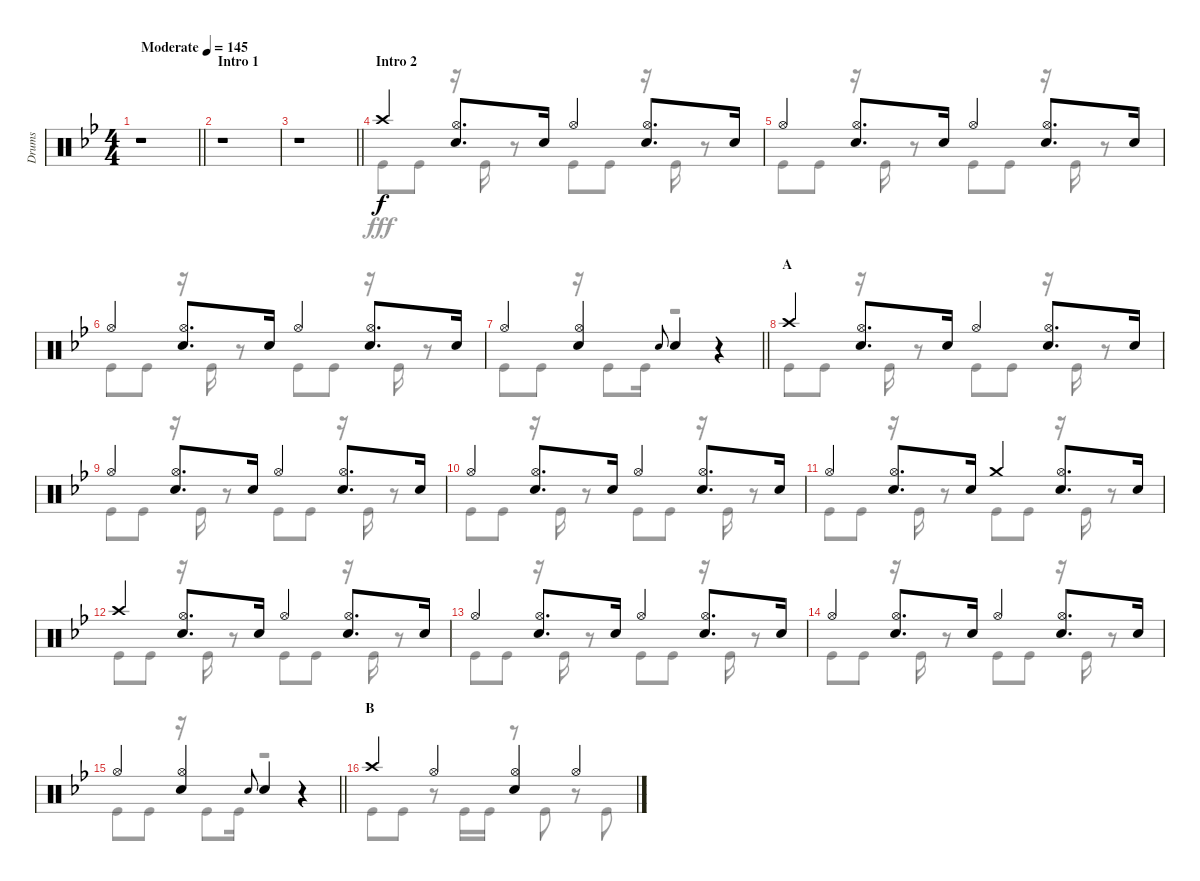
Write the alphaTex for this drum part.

\track ("Drums" "Drums") {instrument percussion}
\staff {score}
\articulation defaults
\voice
\ts (4 4)
\tempo (145 "Moderate")
\clef neutral
\barLineRight lightlight
\ks bb
r.1{dy f} |
\section ("" "Intro 1")
r.1 |
\barLineRight lightlight
r.1 |
\section ("" "Intro 2")
"Crash high (hit)".4 ("Hi-Hat (open)" "Snare (hit) 2").8{d} "Snare (hit) 2".16 "Hi-Hat (open)".4 ("Hi-Hat (open)" "Snare (hit) 2").8{d} "Snare (hit) 2".16 |
"Hi-Hat (open)".4 ("Hi-Hat (open)" "Snare (hit) 2").8{d} "Snare (hit) 2".16 "Hi-Hat (open)".4 ("Hi-Hat (open)" "Snare (hit) 2").8{d} "Snare (hit) 2".16 |
"Hi-Hat (open)".4 ("Hi-Hat (open)" "Snare (hit) 2").8{d} "Snare (hit) 2".16 "Hi-Hat (open)".4 ("Hi-Hat (open)" "Snare (hit) 2").8{d} "Snare (hit) 2".16 |
\barLineRight lightlight "Hi-Hat (open)".4
("Hi-Hat (open)" "Snare (hit) 2").4 "Snare (hit) 2".8{gr onbeat} "Snare (hit) 2".4 r.4 |
\section ("" "A")
"Crash high (hit)".4 ("Hi-Hat (open)" "Snare (hit) 2").8{d} "Snare (hit) 2".16 "Hi-Hat (open)".4 ("Hi-Hat (open)" "Snare (hit) 2").8{d} "Snare (hit) 2".16 |
"Hi-Hat (open)".4 ("Hi-Hat (open)" "Snare (hit) 2").8{d} "Snare (hit) 2".16 "Hi-Hat (open)".4 ("Hi-Hat (open)" "Snare (hit) 2").8{d} "Snare (hit) 2".16 |
"Hi-Hat (open)".4 ("Hi-Hat (open)" "Snare (hit) 2").8{d} "Snare (hit) 2".16 "Hi-Hat (open)".4 ("Hi-Hat (open)" "Snare (hit) 2").8{d} "Snare (hit) 2".16 |
"Hi-Hat (open)".4 ("Hi-Hat (open)" "Snare (hit) 2").8{d} "Snare (hit) 2".16 "Crash medium (hit)".4 ("Hi-Hat (open)" "Snare (hit) 2").8{d} "Snare (hit) 2".16 |
"Crash high (hit)".4 ("Hi-Hat (open)" "Snare (hit) 2").8{d} "Snare (hit) 2".16 "Hi-Hat (open)".4 ("Hi-Hat (open)" "Snare (hit) 2").8{d} "Snare (hit) 2".16 |
"Hi-Hat (open)".4 ("Hi-Hat (open)" "Snare (hit) 2").8{d} "Snare (hit) 2".16 "Hi-Hat (open)".4 ("Hi-Hat (open)" "Snare (hit) 2").8{d} "Snare (hit) 2".16 |
"Hi-Hat (open)".4 ("Hi-Hat (open)" "Snare (hit) 2").8{d} "Snare (hit) 2".16 "Hi-Hat (open)".4 ("Hi-Hat (open)" "Snare (hit) 2").8{d} "Snare (hit) 2".16 |
\barLineRight lightlight "Hi-Hat (open)".4
("Hi-Hat (open)" "Snare (hit) 2").4 "Snare (hit) 2".8{gr onbeat} "Snare (hit) 2".4 r.4 |
\section ("" "B")
"Crash high (hit)".4 "Hi-Hat (open)".4 ("Hi-Hat (open)" "Snare (hit) 2").4 "Hi-Hat (open)".4
\voice
\clef neutral
\ottava regular
\simile none
\barLineRight lightlight
\ks bb
r.1{dy fff} |
r.1 |
\barLineRight lightlight
r.1 |
"Kick (hit)".8 "Kick (hit)".8 r.16 "Kick (hit)".16 r.8 "Kick (hit)".8 "Kick (hit)".8 r.16 "Kick (hit)".16 r.8 |
"Kick (hit)".8 "Kick (hit)".8 r.16 "Kick (hit)".16 r.8 "Kick (hit)".8 "Kick (hit)".8 r.16 "Kick (hit)".16 r.8 |
"Kick (hit)".8 "Kick (hit)".8 r.16 "Kick (hit)".16 r.8 "Kick (hit)".8 "Kick (hit)".8 r.16 "Kick (hit)".16 r.8 |
\barLineRight lightlight "Kick (hit)".8 "Kick (hit)".8
r.16 "Kick (hit)".8 "Kick (hit)".16 r.2 |
"Kick (hit)".8 "Kick (hit)".8 r.16 "Kick (hit)".16 r.8 "Kick (hit)".8 "Kick (hit)".8 r.16 "Kick (hit)".16 r.8 |
"Kick (hit)".8 "Kick (hit)".8 r.16 "Kick (hit)".16 r.8 "Kick (hit)".8 "Kick (hit)".8 r.16 "Kick (hit)".16 r.8 |
"Kick (hit)".8 "Kick (hit)".8 r.16 "Kick (hit)".16 r.8 "Kick (hit)".8 "Kick (hit)".8 r.16 "Kick (hit)".16 r.8 |
"Kick (hit)".8 "Kick (hit)".8 r.16 "Kick (hit)".16 r.8 "Kick (hit)".8 "Kick (hit)".8 r.16 "Kick (hit)".16 r.8 |
"Kick (hit)".8 "Kick (hit)".8 r.16 "Kick (hit)".16 r.8 "Kick (hit)".8 "Kick (hit)".8 r.16 "Kick (hit)".16 r.8 |
"Kick (hit)".8 "Kick (hit)".8 r.16 "Kick (hit)".16 r.8 "Kick (hit)".8 "Kick (hit)".8 r.16 "Kick (hit)".16 r.8 |
"Kick (hit)".8 "Kick (hit)".8 r.16 "Kick (hit)".16 r.8 "Kick (hit)".8 "Kick (hit)".8 r.16 "Kick (hit)".16 r.8 |
\barLineRight lightlight "Kick (hit)".8 "Kick (hit)".8
r.16 "Kick (hit)".8 "Kick (hit)".16 r.2 |
"Kick (hit)".8 "Kick (hit)".8 r.8 "Kick (hit)".16 "Kick (hit)".16 r.8 "Kick (hit)".8 r.8 "Kick (hit)".8
